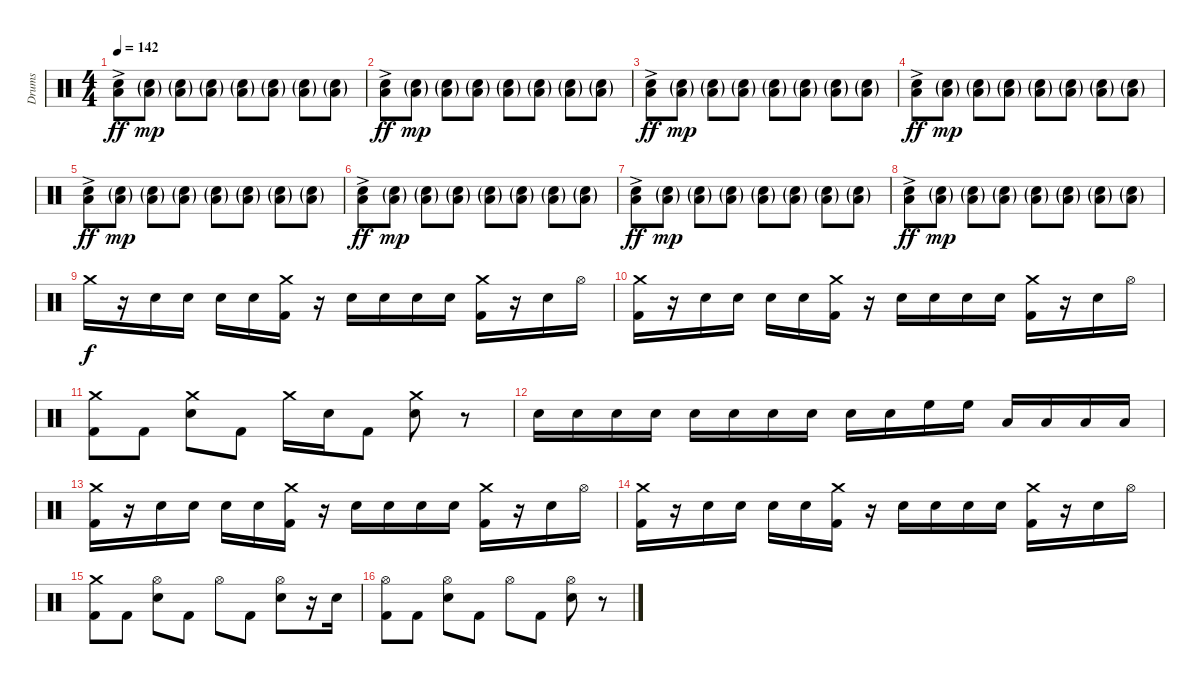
\track ("Drums" "Drums") {instrument percussion}
\staff {score}
\articulation defaults
\ts (4 4)
\tempo 142
\clef neutral
\ks c
("Low Floor Tom (hit)"{ac} "Snare (hit) 2").8{dy ff} ("Low Floor Tom (hit)"{g} "Snare (hit) 2"{g}).8{dy mp} ("Low Floor Tom (hit)"{g} "Snare (hit) 2"{g}).8 ("Low Floor Tom (hit)"{g} "Snare (hit) 2"{g}).8 ("Low Floor Tom (hit)"{g} "Snare (hit) 2"{g}).8 ("Low Floor Tom (hit)"{g} "Snare (hit) 2"{g}).8 ("Low Floor Tom (hit)"{g} "Snare (hit) 2"{g}).8 ("Low Floor Tom (hit)"{g} "Snare (hit) 2"{g}).8 |
("Low Floor Tom (hit)"{ac} "Snare (hit) 2").8{dy ff} ("Low Floor Tom (hit)"{g} "Snare (hit) 2"{g}).8{dy mp} ("Low Floor Tom (hit)"{g} "Snare (hit) 2"{g}).8 ("Low Floor Tom (hit)"{g} "Snare (hit) 2"{g}).8 ("Low Floor Tom (hit)"{g} "Snare (hit) 2"{g}).8 ("Low Floor Tom (hit)"{g} "Snare (hit) 2"{g}).8 ("Low Floor Tom (hit)"{g} "Snare (hit) 2"{g}).8 ("Low Floor Tom (hit)"{g} "Snare (hit) 2"{g}).8 |
("Low Floor Tom (hit)"{ac} "Snare (hit) 2").8{dy ff} ("Low Floor Tom (hit)"{g} "Snare (hit) 2"{g}).8{dy mp} ("Low Floor Tom (hit)"{g} "Snare (hit) 2"{g}).8 ("Low Floor Tom (hit)"{g} "Snare (hit) 2"{g}).8 ("Low Floor Tom (hit)"{g} "Snare (hit) 2"{g}).8 ("Low Floor Tom (hit)"{g} "Snare (hit) 2"{g}).8 ("Low Floor Tom (hit)"{g} "Snare (hit) 2"{g}).8 ("Low Floor Tom (hit)"{g} "Snare (hit) 2"{g}).8 |
("Low Floor Tom (hit)"{ac} "Snare (hit) 2").8{dy ff} ("Low Floor Tom (hit)"{g} "Snare (hit) 2"{g}).8{dy mp} ("Low Floor Tom (hit)"{g} "Snare (hit) 2"{g}).8 ("Low Floor Tom (hit)"{g} "Snare (hit) 2"{g}).8 ("Low Floor Tom (hit)"{g} "Snare (hit) 2"{g}).8 ("Low Floor Tom (hit)"{g} "Snare (hit) 2"{g}).8 ("Low Floor Tom (hit)"{g} "Snare (hit) 2"{g}).8 ("Low Floor Tom (hit)"{g} "Snare (hit) 2"{g}).8 |
("Low Floor Tom (hit)"{ac} "Snare (hit) 2").8{dy ff} ("Low Floor Tom (hit)"{g} "Snare (hit) 2"{g}).8{dy mp} ("Low Floor Tom (hit)"{g} "Snare (hit) 2"{g}).8 ("Low Floor Tom (hit)"{g} "Snare (hit) 2"{g}).8 ("Low Floor Tom (hit)"{g} "Snare (hit) 2"{g}).8 ("Low Floor Tom (hit)"{g} "Snare (hit) 2"{g}).8 ("Low Floor Tom (hit)"{g} "Snare (hit) 2"{g}).8 ("Low Floor Tom (hit)"{g} "Snare (hit) 2"{g}).8 |
("Low Floor Tom (hit)"{ac} "Snare (hit) 2").8{dy ff} ("Low Floor Tom (hit)"{g} "Snare (hit) 2"{g}).8{dy mp} ("Low Floor Tom (hit)"{g} "Snare (hit) 2"{g}).8 ("Low Floor Tom (hit)"{g} "Snare (hit) 2"{g}).8 ("Low Floor Tom (hit)"{g} "Snare (hit) 2"{g}).8 ("Low Floor Tom (hit)"{g} "Snare (hit) 2"{g}).8 ("Low Floor Tom (hit)"{g} "Snare (hit) 2"{g}).8 ("Low Floor Tom (hit)"{g} "Snare (hit) 2"{g}).8 |
("Low Floor Tom (hit)"{ac} "Snare (hit) 2").8{dy ff} ("Low Floor Tom (hit)"{g} "Snare (hit) 2"{g}).8{dy mp} ("Low Floor Tom (hit)"{g} "Snare (hit) 2"{g}).8 ("Low Floor Tom (hit)"{g} "Snare (hit) 2"{g}).8 ("Low Floor Tom (hit)"{g} "Snare (hit) 2"{g}).8 ("Low Floor Tom (hit)"{g} "Snare (hit) 2"{g}).8 ("Low Floor Tom (hit)"{g} "Snare (hit) 2"{g}).8 ("Low Floor Tom (hit)"{g} "Snare (hit) 2"{g}).8 |
("Low Floor Tom (hit)"{ac} "Snare (hit) 2").8{dy ff} ("Low Floor Tom (hit)"{g} "Snare (hit) 2"{g}).8{dy mp} ("Low Floor Tom (hit)"{g} "Snare (hit) 2"{g}).8 ("Low Floor Tom (hit)"{g} "Snare (hit) 2"{g}).8 ("Low Floor Tom (hit)"{g} "Snare (hit) 2"{g}).8 ("Low Floor Tom (hit)"{g} "Snare (hit) 2"{g}).8 ("Low Floor Tom (hit)"{g} "Snare (hit) 2"{g}).8 ("Low Floor Tom (hit)"{g} "Snare (hit) 2"{g}).8 |
"Crash medium (hit)".16{dy f} r.16 "Snare (hit) 2".16 "Snare (hit) 2".16 "Snare (hit) 2".16 "Snare (hit) 2".16 ("Crash medium (hit)" "Kick (hit) 2").16 r.16 "Snare (hit) 2".16 "Snare (hit) 2".16 "Snare (hit) 2".16 "Snare (hit) 2".16 ("Crash medium (hit)" "Kick (hit) 2").16 r.16 "Snare (hit) 2".16 "Hi-Hat (open)".16 |
("Crash medium (hit)" "Kick (hit) 2").16 r.16 "Snare (hit) 2".16 "Snare (hit) 2".16 "Snare (hit) 2".16 "Snare (hit) 2".16 ("Crash medium (hit)" "Kick (hit) 2").16 r.16 "Snare (hit) 2".16 "Snare (hit) 2".16 "Snare (hit) 2".16 "Snare (hit) 2".16 ("Crash medium (hit)" "Kick (hit) 2").16 r.16 "Snare (hit) 2".16 "Hi-Hat (open)".16 |
("Crash medium (hit)" "Kick (hit) 2").8 "Kick (hit) 2".8 ("Crash medium (hit)" "Snare (hit) 2").8 "Kick (hit) 2".8 "Crash medium (hit)".16 "Snare (hit) 2".16 "Kick (hit) 2".8 ("Crash medium (hit)" "Snare (hit) 2").8 r.8 |
"Snare (hit) 2".16 "Snare (hit) 2".16 "Snare (hit) 2".16 "Snare (hit) 2".16 "Snare (hit) 2".16 "Snare (hit) 2".16 "Snare (hit) 2".16 "Snare (hit) 2".16 "Snare (hit) 2".16 "Snare (hit) 2".16 "High Floor Tom (hit)".16 "High Floor Tom (hit)".16 "Low Tom (hit)".16 "Low Tom (hit)".16 "Low Floor Tom (hit)".16 "Low Floor Tom (hit)".16 |
("Crash medium (hit)" "Kick (hit) 2").16 r.16 "Snare (hit) 2".16 "Snare (hit) 2".16 "Snare (hit) 2".16 "Snare (hit) 2".16 ("Crash medium (hit)" "Kick (hit) 2").16 r.16 "Snare (hit) 2".16 "Snare (hit) 2".16 "Snare (hit) 2".16 "Snare (hit) 2".16 ("Crash medium (hit)" "Kick (hit) 2").16 r.16 "Snare (hit) 2".16 "Hi-Hat (open)".16 |
("Crash medium (hit)" "Kick (hit) 2").16 r.16 "Snare (hit) 2".16 "Snare (hit) 2".16 "Snare (hit) 2".16 "Snare (hit) 2".16 ("Crash medium (hit)" "Kick (hit) 2").16 r.16 "Snare (hit) 2".16 "Snare (hit) 2".16 "Snare (hit) 2".16 "Snare (hit) 2".16 ("Crash medium (hit)" "Kick (hit) 2").16 r.16 "Snare (hit) 2".16 "Hi-Hat (open)".16 |
("Crash medium (hit)" "Kick (hit) 2").8 "Kick (hit) 2".8 ("Hi-Hat (open)" "Snare (hit) 2").8 "Kick (hit) 2".8 "Hi-Hat (open)".8 "Kick (hit) 2".8 ("Hi-Hat (open)" "Snare (hit) 2").8 r.16 "Snare (hit) 2".16 |
("Hi-Hat (open)" "Kick (hit) 2").8 "Kick (hit) 2".8 ("Hi-Hat (open)" "Snare (hit) 2").8 "Kick (hit) 2".8 "Hi-Hat (open)".8 "Kick (hit) 2".8 ("Hi-Hat (open)" "Snare (hit) 2").8 r.8
